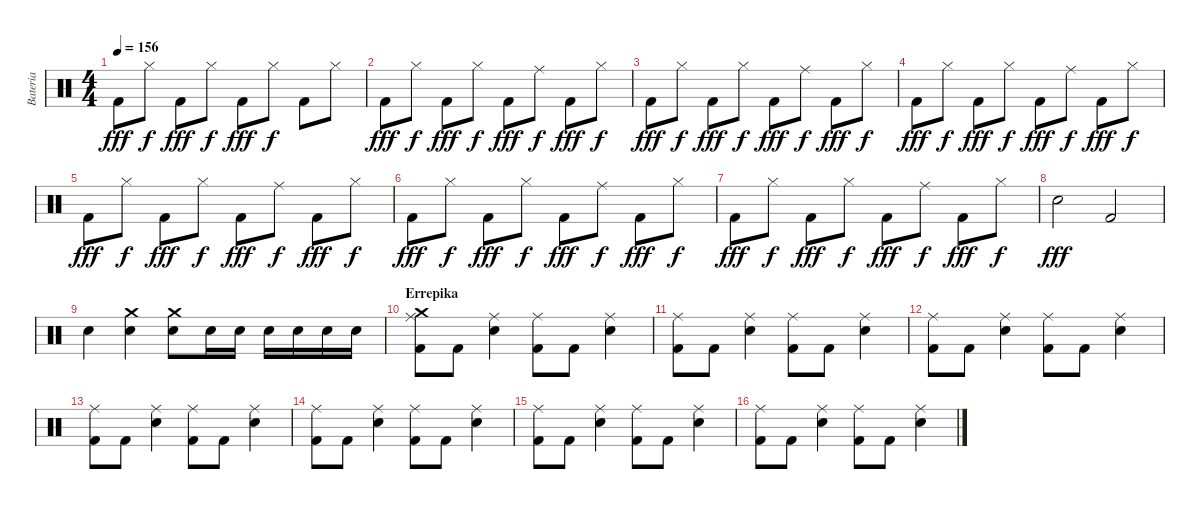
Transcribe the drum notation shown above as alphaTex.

\track ("Bateria" "Bateria") {instrument percussion}
\staff {score}
\articulation defaults
\ts (4 4)
\tempo 156
\clef neutral
\ks c "Kick (hit) 2".8{dy fff} "Hi-Hat (closed)".8{dy f} "Kick (hit) 2".8{dy fff} "Hi-Hat (closed)".8{dy f} "Kick (hit) 2".8{dy fff} "Hi-Hat (closed)".8{dy f} "Kick (hit) 2".8 "Hi-Hat (closed)".8
|
"Kick (hit) 2".8{dy fff} "Hi-Hat (closed)".8{dy f} "Kick (hit) 2".8{dy fff} "Hi-Hat (closed)".8{dy f} "Kick (hit) 2".8{dy fff} "Ride (middle)".8{dy f} "Kick (hit) 2".8{dy fff} "Hi-Hat (closed)".8{dy f} |
"Kick (hit) 2".8{dy fff} "Hi-Hat (closed)".8{dy f} "Kick (hit) 2".8{dy fff} "Hi-Hat (closed)".8{dy f} "Kick (hit) 2".8{dy fff} "Ride (middle)".8{dy f} "Kick (hit) 2".8{dy fff} "Hi-Hat (closed)".8{dy f} |
"Kick (hit) 2".8{dy fff} "Hi-Hat (closed)".8{dy f} "Kick (hit) 2".8{dy fff} "Hi-Hat (closed)".8{dy f} "Kick (hit) 2".8{dy fff} "Ride (middle)".8{dy f} "Kick (hit) 2".8{dy fff} "Hi-Hat (closed)".8{dy f} |
"Kick (hit) 2".8{dy fff} "Hi-Hat (closed)".8{dy f} "Kick (hit) 2".8{dy fff} "Hi-Hat (closed)".8{dy f} "Kick (hit) 2".8{dy fff} "Ride (middle)".8{dy f} "Kick (hit) 2".8{dy fff} "Hi-Hat (closed)".8{dy f} |
"Kick (hit) 2".8{dy fff} "Hi-Hat (closed)".8{dy f} "Kick (hit) 2".8{dy fff} "Hi-Hat (closed)".8{dy f} "Kick (hit) 2".8{dy fff} "Ride (middle)".8{dy f} "Kick (hit) 2".8{dy fff} "Hi-Hat (closed)".8{dy f} |
"Kick (hit) 2".8{dy fff} "Hi-Hat (closed)".8{dy f} "Kick (hit) 2".8{dy fff} "Hi-Hat (closed)".8{dy f} "Kick (hit) 2".8{dy fff} "Ride (middle)".8{dy f} "Kick (hit) 2".8{dy fff} "Hi-Hat (closed)".8{dy f} |
"Electric Snare (hit)".2{dy fff} "Kick (hit) 2".2 |
"Electric Snare (hit)".4 ("Electric Snare (hit)" "Crash medium (hit)").4 ("Electric Snare (hit)" "Crash medium (hit)").8 "Electric Snare (hit)".16 "Electric Snare (hit)".16 "Electric Snare (hit)".16 "Electric Snare (hit)".16 "Electric Snare (hit)".16 "Electric Snare (hit)".16 |
\section ("" "Errepika")
("Ride (middle)" "Kick (hit) 2" "Crash medium (hit)").8 "Kick (hit) 2".8 ("Ride (middle)" "Electric Snare (hit)").4 ("Ride (middle)" "Kick (hit) 2").8 "Kick (hit) 2".8 ("Ride (middle)" "Electric Snare (hit)").4 |
("Ride (middle)" "Kick (hit) 2").8 "Kick (hit) 2".8 ("Ride (middle)" "Electric Snare (hit)").4 ("Ride (middle)" "Kick (hit) 2").8 "Kick (hit) 2".8 ("Ride (middle)" "Electric Snare (hit)").4 |
("Ride (middle)" "Kick (hit) 2").8 "Kick (hit) 2".8 ("Ride (middle)" "Electric Snare (hit)").4 ("Ride (middle)" "Kick (hit) 2").8 "Kick (hit) 2".8 ("Ride (middle)" "Electric Snare (hit)").4 |
("Ride (middle)" "Kick (hit) 2").8 "Kick (hit) 2".8 ("Ride (middle)" "Electric Snare (hit)").4 ("Ride (middle)" "Kick (hit) 2").8 "Kick (hit) 2".8 ("Ride (middle)" "Electric Snare (hit)").4 |
("Ride (middle)" "Kick (hit) 2").8 "Kick (hit) 2".8 ("Ride (middle)" "Electric Snare (hit)").4 ("Ride (middle)" "Kick (hit) 2").8 "Kick (hit) 2".8 ("Ride (middle)" "Electric Snare (hit)").4 |
("Ride (middle)" "Kick (hit) 2").8 "Kick (hit) 2".8 ("Ride (middle)" "Electric Snare (hit)").4 ("Ride (middle)" "Kick (hit) 2").8 "Kick (hit) 2".8 ("Ride (middle)" "Electric Snare (hit)").4 |
("Ride (middle)" "Kick (hit) 2").8 "Kick (hit) 2".8 ("Ride (middle)" "Electric Snare (hit)").4 ("Ride (middle)" "Kick (hit) 2").8 "Kick (hit) 2".8 ("Ride (middle)" "Electric Snare (hit)").4
